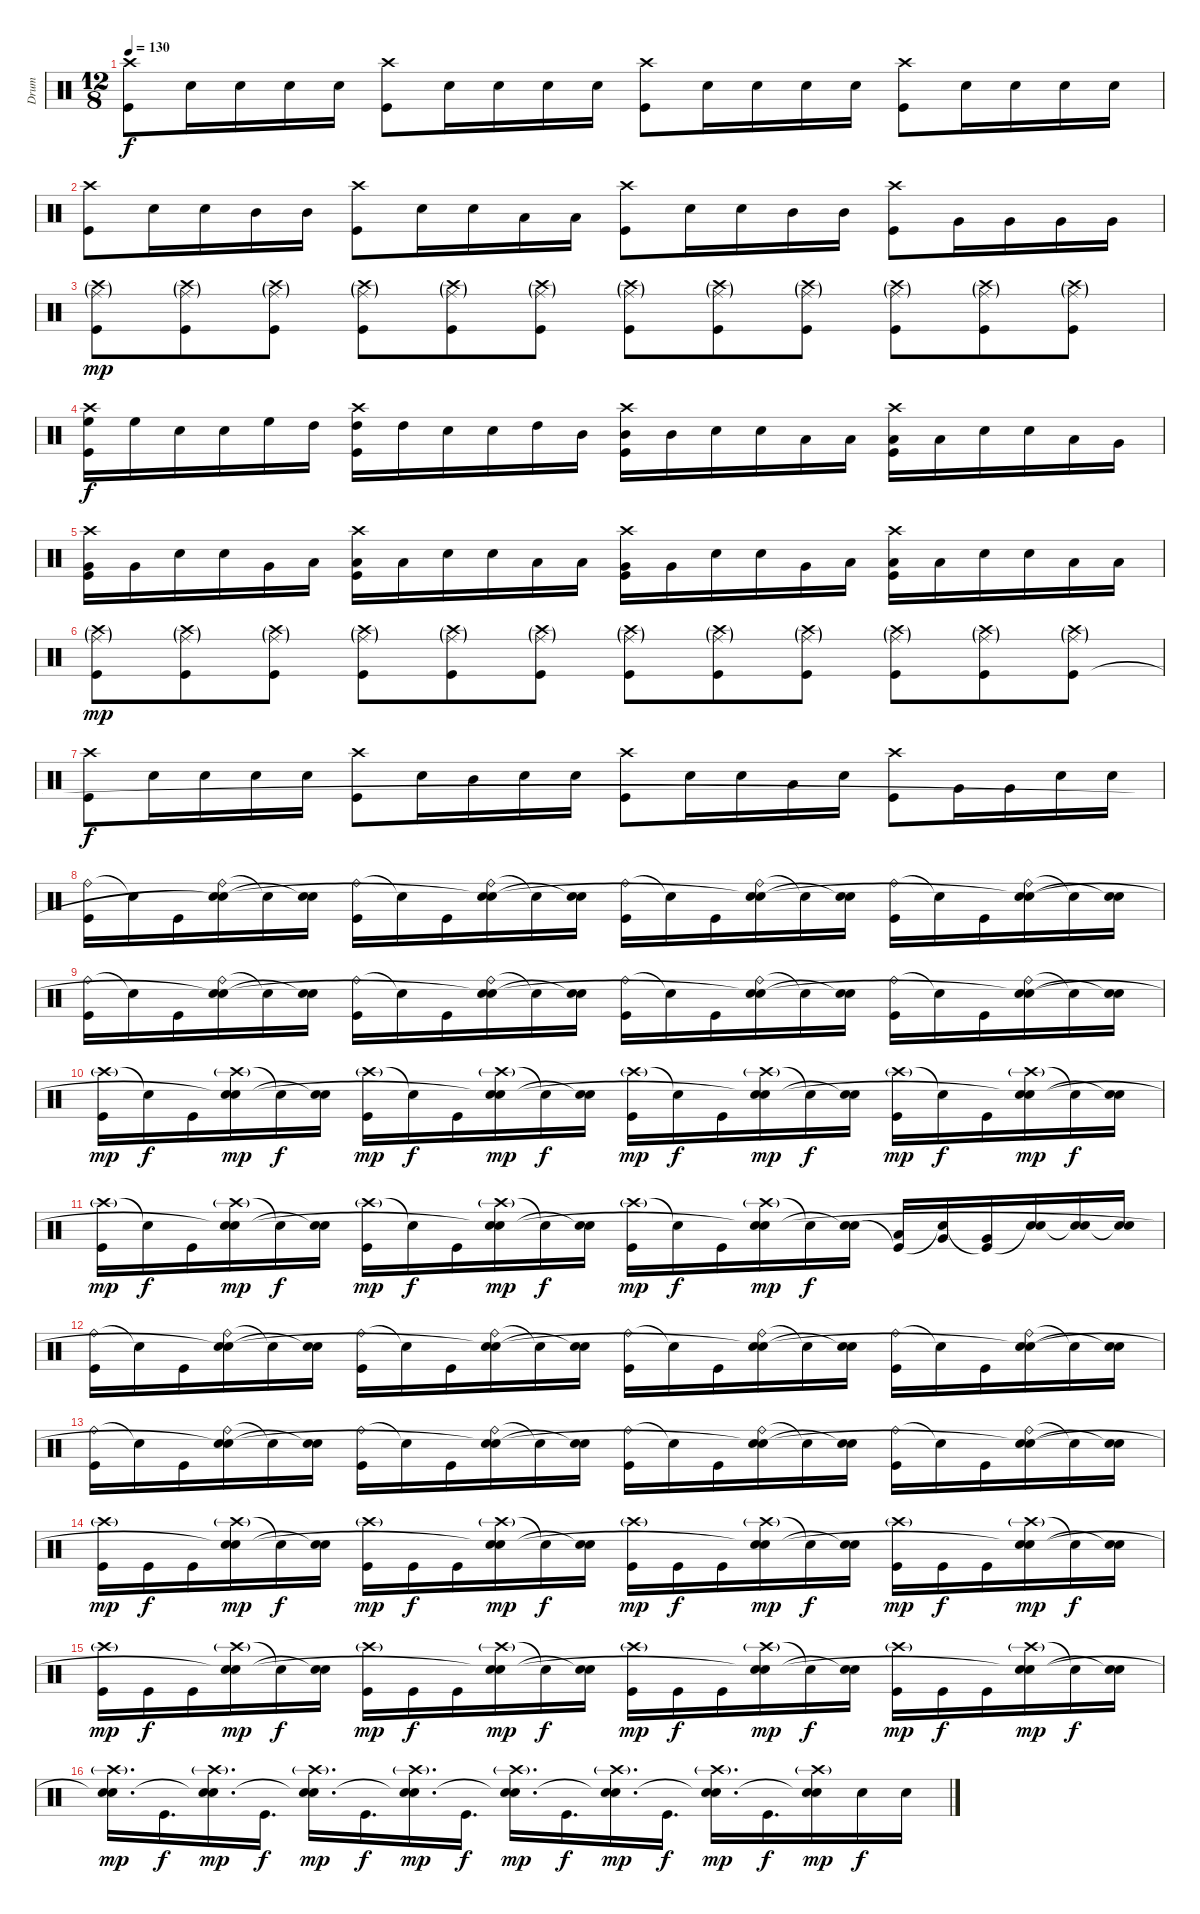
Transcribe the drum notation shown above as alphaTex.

\track ("Drum" "Drum") {instrument percussion}
\staff {score}
\articulation defaults
\ts (12 8)
\tempo 130
\clef neutral
\ks c
("Crash high (hit)" "Kick (hit)").8{dy f} "Electric Snare (hit)".16 "Electric Snare (hit)".16 "Electric Snare (hit)".16 "Electric Snare (hit)".16 ("Crash high (hit)" "Kick (hit)").8 "Electric Snare (hit)".16 "Electric Snare (hit)".16 "Electric Snare (hit)".16 "Electric Snare (hit)".16 ("Crash high (hit)" "Kick (hit)").8 "Electric Snare (hit)".16 "Electric Snare (hit)".16 "Electric Snare (hit)".16 "Electric Snare (hit)".16 ("Crash high (hit)" "Kick (hit)").8 "Electric Snare (hit)".16 "Electric Snare (hit)".16 "Electric Snare (hit)".16 "Electric Snare (hit)".16 |
("Crash high (hit)" "Kick (hit)").8 "Electric Snare (hit)".16 "Electric Snare (hit)".16 "Mid Tom (hit)".16 "Mid Tom (hit)".16 ("Crash high (hit)" "Kick (hit)").8 "Electric Snare (hit)".16 "Electric Snare (hit)".16 "Low Tom (hit)".16 "Low Tom (hit)".16 ("Crash high (hit)" "Kick (hit)").8 "Electric Snare (hit)".16 "Electric Snare (hit)".16 "Mid Tom (hit)".16 "Mid Tom (hit)".16 ("Crash high (hit)" "Kick (hit)").8 "Very Low Tom (hit)".16 "Very Low Tom (hit)".16 "Very Low Tom (hit)".16 "Very Low Tom (hit)".16 |
("Crash high (hit)"{g} "Ride (middle)"{g} "Kick (hit)").8{dy mp} ("Crash high (hit)"{g} "Ride (middle)"{g} "Kick (hit)").8 ("Crash high (hit)"{g} "Ride (middle)"{g} "Kick (hit)").8 ("Crash high (hit)"{g} "Ride (middle)"{g} "Kick (hit)").8 ("Crash high (hit)"{g} "Ride (middle)"{g} "Kick (hit)").8 ("Crash high (hit)"{g} "Ride (middle)"{g} "Kick (hit)").8 ("Crash high (hit)"{g} "Ride (middle)"{g} "Kick (hit)").8 ("Crash high (hit)"{g} "Ride (middle)"{g} "Kick (hit)").8 ("Crash high (hit)"{g} "Ride (middle)"{g} "Kick (hit)").8 ("Crash high (hit)"{g} "Ride (middle)"{g} "Kick (hit)").8 ("Crash high (hit)"{g} "Ride (middle)"{g} "Kick (hit)").8 ("Crash high (hit)"{g} "Ride (middle)"{g} "Kick (hit)").8 |
("Crash high (hit)" "High Floor Tom (hit)" "Kick (hit)").16{dy f} "High Floor Tom (hit)".16 "Electric Snare (hit)".16 "Electric Snare (hit)".16 "High Floor Tom (hit)".16 "High Tom (hit)".16 ("Crash high (hit)" "High Tom (hit)" "Kick (hit)").16 "High Tom (hit)".16 "Electric Snare (hit)".16 "Electric Snare (hit)".16 "High Tom (hit)".16 "Mid Tom (hit)".16 ("Crash high (hit)" "Mid Tom (hit)" "Kick (hit)").16 "Mid Tom (hit)".16 "Electric Snare (hit)".16 "Electric Snare (hit)".16 "Low Tom (hit)".16 "Low Tom (hit)".16 ("Crash high (hit)" "Low Tom (hit)" "Kick (hit)").16 "Low Tom (hit)".16 "Electric Snare (hit)".16 "Electric Snare (hit)".16 "Low Tom (hit)".16 "Very Low Tom (hit)".16 |
("Crash high (hit)" "Very Low Tom (hit)" "Kick (hit)").16 "Very Low Tom (hit)".16 "Electric Snare (hit)".16 "Electric Snare (hit)".16 "Very Low Tom (hit)".16 "Low Floor Tom (hit)".16 ("Crash high (hit)" "Low Floor Tom (hit)" "Kick (hit)").16 "Low Floor Tom (hit)".16 "Electric Snare (hit)".16 "Electric Snare (hit)".16 "Low Floor Tom (hit)".16 "Low Floor Tom (hit)".16 ("Crash high (hit)" "Very Low Tom (hit)" "Kick (hit)").16 "Very Low Tom (hit)".16 "Electric Snare (hit)".16 "Electric Snare (hit)".16 "Very Low Tom (hit)".16 "Low Floor Tom (hit)".16 ("Crash high (hit)" "Low Floor Tom (hit)" "Kick (hit)").16 "Low Floor Tom (hit)".16 "Electric Snare (hit)".16 "Electric Snare (hit)".16 "Low Floor Tom (hit)".16 "Low Floor Tom (hit)".16 |
("Crash high (hit)"{g} "Ride (middle)"{g} "Kick (hit)").8{dy mp} ("Crash high (hit)"{g} "Ride (middle)"{g} "Kick (hit)").8 ("Crash high (hit)"{g} "Ride (middle)"{g} "Kick (hit)").8 ("Crash high (hit)"{g} "Ride (middle)"{g} "Kick (hit)").8 ("Crash high (hit)"{g} "Ride (middle)"{g} "Kick (hit)").8 ("Crash high (hit)"{g} "Ride (middle)"{g} "Kick (hit)").8 ("Crash high (hit)"{g} "Ride (middle)"{g} "Kick (hit)").8 ("Crash high (hit)"{g} "Ride (middle)"{g} "Kick (hit)").8 ("Crash high (hit)"{g} "Ride (middle)"{g} "Kick (hit)").8 ("Crash high (hit)"{g} "Ride (middle)"{g} "Kick (hit)").8 ("Crash high (hit)"{g} "Ride (middle)"{g} "Kick (hit)").8 ("Crash high (hit)"{g} "Ride (middle)"{g} "Kick (hit)").8 |
("Crash high (hit)" "Kick (hit)").8{dy f} "Electric Snare (hit)".16 "Electric Snare (hit)".16 "Electric Snare (hit)".16 "Electric Snare (hit)".16 ("Crash high (hit)" "Kick (hit)").8 "Electric Snare (hit)".16 "Mid Tom (hit)".16 "Electric Snare (hit)".16 "Electric Snare (hit)".16 ("Crash high (hit)" "Kick (hit)").8 "Electric Snare (hit)".16 "Electric Snare (hit)".16 "Low Tom (hit)".16 "Electric Snare (hit)".16 ("Crash high (hit)" "Kick (hit)").8 "Very Low Tom (hit)".16 "Very Low Tom (hit)".16 "Electric Snare (hit)".16 "Electric Snare (hit)".16 |
("Ride (bell)" "Kick (hit)").16 "Snare (hit)"{t}.16 "Kick (hit)".16 ("Ride (bell)" "Electric Snare (hit)" "Snare (hit)"{t}).16 "Snare (hit)"{t}.16 ("Electric Snare (hit)" "Snare (hit)"{t}).16 ("Ride (bell)" "Kick (hit)").16 "Snare (hit)"{t}.16 "Kick (hit)".16 ("Ride (bell)" "Electric Snare (hit)" "Snare (hit)"{t}).16 "Snare (hit)"{t}.16 ("Electric Snare (hit)" "Snare (hit)"{t}).16 ("Ride (bell)" "Kick (hit)").16 "Snare (hit)"{t}.16 "Kick (hit)".16 ("Ride (bell)" "Electric Snare (hit)" "Snare (hit)"{t}).16 "Snare (hit)"{t}.16 ("Electric Snare (hit)" "Snare (hit)"{t}).16 ("Ride (bell)" "Kick (hit)").16 "Snare (hit)"{t}.16 "Kick (hit)".16 ("Ride (bell)" "Electric Snare (hit)" "Snare (hit)"{t}).16 "Snare (hit)"{t}.16 ("Electric Snare (hit)" "Snare (hit)"{t}).16 |
("Ride (bell)" "Kick (hit)").16 "Snare (hit)"{t}.16 "Kick (hit)".16 ("Ride (bell)" "Electric Snare (hit)" "Snare (hit)"{t}).16 "Snare (hit)"{t}.16 ("Electric Snare (hit)" "Snare (hit)"{t}).16 ("Ride (bell)" "Kick (hit)").16 "Snare (hit)"{t}.16 "Kick (hit)".16 ("Ride (bell)" "Electric Snare (hit)" "Snare (hit)"{t}).16 "Snare (hit)"{t}.16 ("Electric Snare (hit)" "Snare (hit)"{t}).16 ("Ride (bell)" "Kick (hit)").16 "Snare (hit)"{t}.16 "Kick (hit)".16 ("Ride (bell)" "Electric Snare (hit)" "Snare (hit)"{t}).16 "Snare (hit)"{t}.16 ("Electric Snare (hit)" "Snare (hit)"{t}).16 ("Ride (bell)" "Kick (hit)").16 "Snare (hit)"{t}.16 "Kick (hit)".16 ("Ride (bell)" "Electric Snare (hit)" "Snare (hit)"{t}).16 "Snare (hit)"{t}.16 ("Electric Snare (hit)" "Snare (hit)"{t}).16 |
("Crash high (hit)"{g} "Kick (hit)").16{dy mp} "Snare (hit)"{t}.16{dy f} "Kick (hit)".16 ("Crash high (hit)"{g} "Electric Snare (hit)" "Snare (hit)"{t}).16{dy mp} "Snare (hit)"{t}.16{dy f} ("Electric Snare (hit)" "Snare (hit)"{t}).16 ("Crash high (hit)"{g} "Kick (hit)").16{dy mp} "Snare (hit)"{t}.16{dy f} "Kick (hit)".16 ("Crash high (hit)"{g} "Electric Snare (hit)" "Snare (hit)"{t}).16{dy mp} "Snare (hit)"{t}.16{dy f} ("Electric Snare (hit)" "Snare (hit)"{t}).16 ("Crash high (hit)"{g} "Kick (hit)").16{dy mp} "Snare (hit)"{t}.16{dy f} "Kick (hit)".16 ("Crash high (hit)"{g} "Electric Snare (hit)" "Snare (hit)"{t}).16{dy mp} "Snare (hit)"{t}.16{dy f} ("Electric Snare (hit)" "Snare (hit)"{t}).16 ("Crash high (hit)"{g} "Kick (hit)").16{dy mp} "Snare (hit)"{t}.16{dy f} "Kick (hit)".16 ("Crash high (hit)"{g} "Electric Snare (hit)" "Snare (hit)"{t}).16{dy mp} "Snare (hit)"{t}.16{dy f} ("Electric Snare (hit)" "Snare (hit)"{t}).16 |
("Crash high (hit)"{g} "Kick (hit)").16{dy mp} "Snare (hit)"{t}.16{dy f} "Kick (hit)".16 ("Crash high (hit)"{g} "Electric Snare (hit)" "Snare (hit)"{t}).16{dy mp} "Snare (hit)"{t}.16{dy f} ("Electric Snare (hit)" "Snare (hit)"{t}).16 ("Crash high (hit)"{g} "Kick (hit)").16{dy mp} "Snare (hit)"{t}.16{dy f} "Kick (hit)".16 ("Crash high (hit)"{g} "Electric Snare (hit)" "Snare (hit)"{t}).16{dy mp} "Snare (hit)"{t}.16{dy f} ("Electric Snare (hit)" "Snare (hit)"{t}).16 ("Crash high (hit)"{g} "Kick (hit)").16{dy mp} "Snare (hit)"{t}.16{dy f} "Kick (hit)".16 ("Crash high (hit)"{g} "Electric Snare (hit)" "Snare (hit)"{t}).16{dy mp} "Snare (hit)"{t}.16{dy f} ("Electric Snare (hit)" "Snare (hit)"{t}).16 ("Low Tom (hit)" "Kick (hit)"{t}).16 ("Very Low Tom (hit)" "Snare (hit)"{t}).16 ("Very Low Tom (hit)" "Kick (hit)"{t}).16 ("Electric Snare (hit)" "Snare (hit)"{t}).16 ("Electric Snare (hit)" "Snare (hit)"{t}).16 ("Electric Snare (hit)" "Snare (hit)"{t}).16 |
("Ride (bell)" "Kick (hit)").16 "Snare (hit)"{t}.16 "Kick (hit)".16 ("Ride (bell)" "Electric Snare (hit)" "Snare (hit)"{t}).16 "Snare (hit)"{t}.16 ("Electric Snare (hit)" "Snare (hit)"{t}).16 ("Ride (bell)" "Kick (hit)").16 "Snare (hit)"{t}.16 "Kick (hit)".16 ("Ride (bell)" "Electric Snare (hit)" "Snare (hit)"{t}).16 "Snare (hit)"{t}.16 ("Electric Snare (hit)" "Snare (hit)"{t}).16 ("Ride (bell)" "Kick (hit)").16 "Snare (hit)"{t}.16 "Kick (hit)".16 ("Ride (bell)" "Electric Snare (hit)" "Snare (hit)"{t}).16 "Snare (hit)"{t}.16 ("Electric Snare (hit)" "Snare (hit)"{t}).16 ("Ride (bell)" "Kick (hit)").16 "Snare (hit)"{t}.16 "Kick (hit)".16 ("Ride (bell)" "Electric Snare (hit)" "Snare (hit)"{t}).16 "Snare (hit)"{t}.16 ("Electric Snare (hit)" "Snare (hit)"{t}).16 |
("Ride (bell)" "Kick (hit)").16 "Snare (hit)"{t}.16 "Kick (hit)".16 ("Ride (bell)" "Electric Snare (hit)" "Snare (hit)"{t}).16 "Snare (hit)"{t}.16 ("Electric Snare (hit)" "Snare (hit)"{t}).16 ("Ride (bell)" "Kick (hit)").16 "Snare (hit)"{t}.16 "Kick (hit)".16 ("Ride (bell)" "Electric Snare (hit)" "Snare (hit)"{t}).16 "Snare (hit)"{t}.16 ("Electric Snare (hit)" "Snare (hit)"{t}).16 ("Ride (bell)" "Kick (hit)").16 "Snare (hit)"{t}.16 "Kick (hit)".16 ("Ride (bell)" "Electric Snare (hit)" "Snare (hit)"{t}).16 "Snare (hit)"{t}.16 ("Electric Snare (hit)" "Snare (hit)"{t}).16 ("Ride (bell)" "Kick (hit)").16 "Snare (hit)"{t}.16 "Kick (hit)".16 ("Ride (bell)" "Electric Snare (hit)" "Snare (hit)"{t}).16 "Snare (hit)"{t}.16 ("Electric Snare (hit)" "Snare (hit)"{t}).16 |
("Crash high (hit)"{g} "Kick (hit)").16{dy mp} "Kick (hit)".16{dy f} "Kick (hit)".16 ("Crash high (hit)"{g} "Electric Snare (hit)" "Snare (hit)"{t}).16{dy mp} "Snare (hit)"{t}.16{dy f} ("Electric Snare (hit)" "Snare (hit)"{t}).16 ("Crash high (hit)"{g} "Kick (hit)").16{dy mp} "Kick (hit)".16{dy f} "Kick (hit)".16 ("Crash high (hit)"{g} "Electric Snare (hit)" "Snare (hit)"{t}).16{dy mp} "Snare (hit)"{t}.16{dy f} ("Electric Snare (hit)" "Snare (hit)"{t}).16 ("Crash high (hit)"{g} "Kick (hit)").16{dy mp} "Kick (hit)".16{dy f} "Kick (hit)".16 ("Crash high (hit)"{g} "Electric Snare (hit)" "Snare (hit)"{t}).16{dy mp} "Snare (hit)"{t}.16{dy f} ("Electric Snare (hit)" "Snare (hit)"{t}).16 ("Crash high (hit)"{g} "Kick (hit)").16{dy mp} "Kick (hit)".16{dy f} "Kick (hit)".16 ("Crash high (hit)"{g} "Electric Snare (hit)" "Snare (hit)"{t}).16{dy mp} "Snare (hit)"{t}.16{dy f} ("Electric Snare (hit)" "Snare (hit)"{t}).16 |
("Crash high (hit)"{g} "Kick (hit)").16{dy mp} "Kick (hit)".16{dy f} "Kick (hit)".16 ("Crash high (hit)"{g} "Electric Snare (hit)" "Snare (hit)"{t}).16{dy mp} "Snare (hit)"{t}.16{dy f} ("Electric Snare (hit)" "Snare (hit)"{t}).16 ("Crash high (hit)"{g} "Kick (hit)").16{dy mp} "Kick (hit)".16{dy f} "Kick (hit)".16 ("Crash high (hit)"{g} "Electric Snare (hit)" "Snare (hit)"{t}).16{dy mp} "Snare (hit)"{t}.16{dy f} ("Electric Snare (hit)" "Snare (hit)"{t}).16 ("Crash high (hit)"{g} "Kick (hit)").16{dy mp} "Kick (hit)".16{dy f} "Kick (hit)".16 ("Crash high (hit)"{g} "Electric Snare (hit)" "Snare (hit)"{t}).16{dy mp} "Snare (hit)"{t}.16{dy f} ("Electric Snare (hit)" "Snare (hit)"{t}).16 ("Crash high (hit)"{g} "Kick (hit)").16{dy mp} "Kick (hit)".16{dy f} "Kick (hit)".16 ("Crash high (hit)"{g} "Electric Snare (hit)" "Snare (hit)"{t}).16{dy mp} "Snare (hit)"{t}.16{dy f} ("Electric Snare (hit)" "Snare (hit)"{t}).16 |
("Crash high (hit)"{g} "Electric Snare (hit)" "Snare (hit)"{t}).16{d dy mp} "Kick (hit)".16{d dy f} ("Crash high (hit)"{g} "Electric Snare (hit)" "Snare (hit)"{t}).16{d dy mp} "Kick (hit)".16{d dy f} ("Crash high (hit)"{g} "Electric Snare (hit)" "Snare (hit)"{t}).16{d dy mp} "Kick (hit)".16{d dy f} ("Crash high (hit)"{g} "Electric Snare (hit)" "Snare (hit)"{t}).16{d dy mp} "Kick (hit)".16{d dy f} ("Crash high (hit)"{g} "Electric Snare (hit)" "Snare (hit)"{t}).16{d dy mp} "Kick (hit)".16{d dy f} ("Crash high (hit)"{g} "Electric Snare (hit)" "Snare (hit)"{t}).16{d dy mp} "Kick (hit)".16{d dy f} ("Crash high (hit)"{g} "Electric Snare (hit)" "Snare (hit)"{t}).16{d dy mp} "Kick (hit)".16{d dy f} ("Crash high (hit)"{g} "Electric Snare (hit)" "Snare (hit)"{t}).16{dy mp} "Electric Snare (hit)".16{dy f} "Electric Snare (hit)".16
